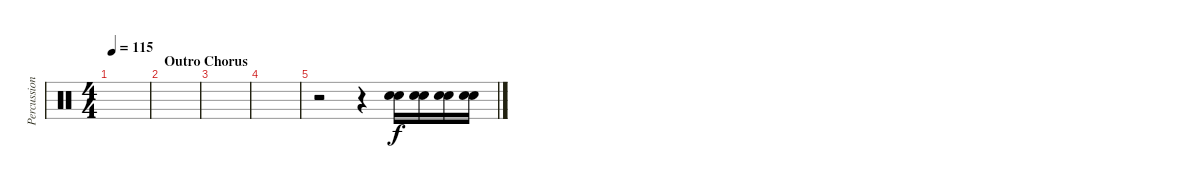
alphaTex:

\track ("Percussion - Splash Cymbal" "Percussion") {instrument percussion}
\staff {score}
\articulation defaults
\ts (4 4)
\tempo 115
\clef neutral
\ks c
|
\section ("" "Outro Chorus")
|
|
|
r.2 r.4 ("Electric Snare (hit)" "Snare (hit) 2").16{dy f} ("Electric Snare (hit)" "Snare (hit) 2").16 ("Electric Snare (hit)" "Snare (hit) 2").16 ("Electric Snare (hit)" "Snare (hit) 2").16
